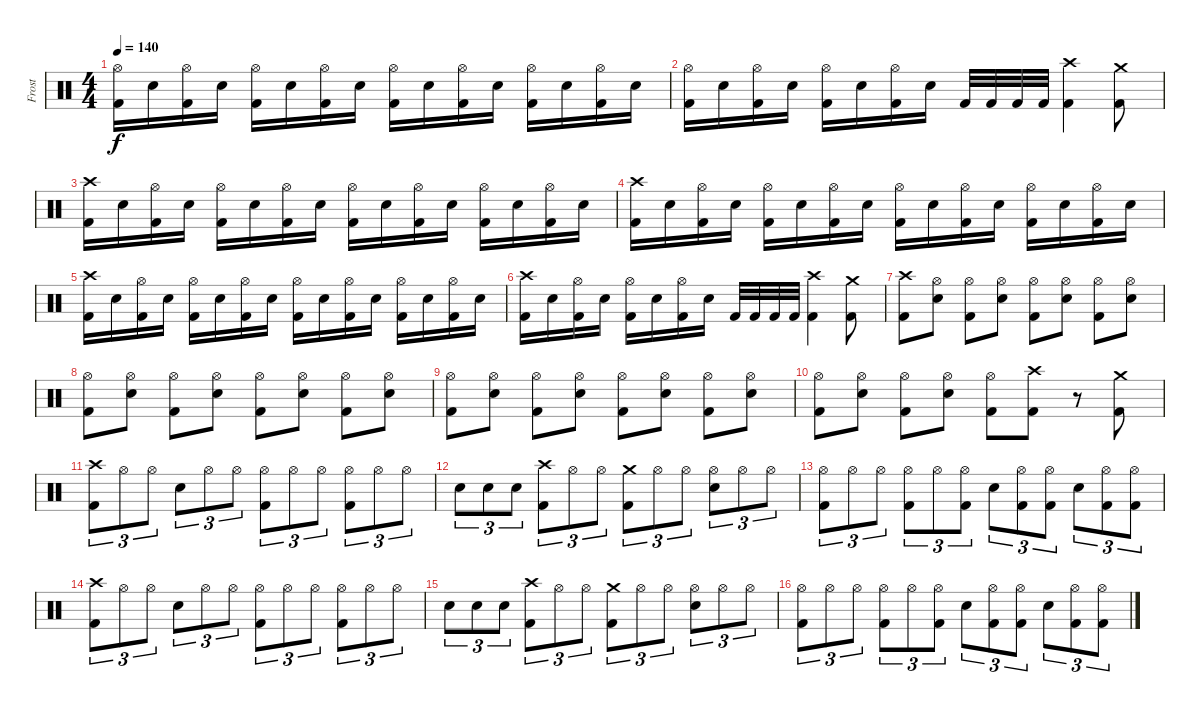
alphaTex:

\track ("Frost" "Frost") {instrument percussion}
\staff {score}
\articulation defaults
\ts (4 4)
\tempo 140
\clef neutral
\ks c
("Hi-Hat (open)" "Kick (hit) 2").16{dy f} "Snare (hit) 2".16 ("Hi-Hat (open)" "Kick (hit) 2").16 "Snare (hit) 2".16 ("Hi-Hat (open)" "Kick (hit) 2").16 "Snare (hit) 2".16 ("Hi-Hat (open)" "Kick (hit) 2").16 "Snare (hit) 2".16 ("Hi-Hat (open)" "Kick (hit) 2").16 "Snare (hit) 2".16 ("Hi-Hat (open)" "Kick (hit) 2").16 "Snare (hit) 2".16 ("Hi-Hat (open)" "Kick (hit) 2").16 "Snare (hit) 2".16 ("Hi-Hat (open)" "Kick (hit) 2").16 "Snare (hit) 2".16 |
("Hi-Hat (open)" "Kick (hit) 2").16 "Snare (hit) 2".16 ("Hi-Hat (open)" "Kick (hit) 2").16 "Snare (hit) 2".16 ("Hi-Hat (open)" "Kick (hit) 2").16 "Snare (hit) 2".16 ("Hi-Hat (open)" "Kick (hit) 2").16 "Snare (hit) 2".16 "Kick (hit) 2".32 "Kick (hit) 2".32 "Kick (hit) 2".32 "Kick (hit) 2".32 ("Crash high (hit)" "Kick (hit) 2").4 ("Crash medium (hit)" "Kick (hit) 2").8 |
("Crash high (hit)" "Kick (hit) 2").16 "Snare (hit) 2".16 ("Hi-Hat (open)" "Kick (hit) 2").16 "Snare (hit) 2".16 ("Hi-Hat (open)" "Kick (hit) 2").16 "Snare (hit) 2".16 ("Hi-Hat (open)" "Kick (hit) 2").16 "Snare (hit) 2".16 ("Hi-Hat (open)" "Kick (hit) 2").16 "Snare (hit) 2".16 ("Hi-Hat (open)" "Kick (hit) 2").16 "Snare (hit) 2".16 ("Hi-Hat (open)" "Kick (hit) 2").16 "Snare (hit) 2".16 ("Hi-Hat (open)" "Kick (hit) 2").16 "Snare (hit) 2".16 |
("Crash high (hit)" "Kick (hit) 2").16 "Snare (hit) 2".16 ("Hi-Hat (open)" "Kick (hit) 2").16 "Snare (hit) 2".16 ("Hi-Hat (open)" "Kick (hit) 2").16 "Snare (hit) 2".16 ("Hi-Hat (open)" "Kick (hit) 2").16 "Snare (hit) 2".16 ("Hi-Hat (open)" "Kick (hit) 2").16 "Snare (hit) 2".16 ("Hi-Hat (open)" "Kick (hit) 2").16 "Snare (hit) 2".16 ("Hi-Hat (open)" "Kick (hit) 2").16 "Snare (hit) 2".16 ("Hi-Hat (open)" "Kick (hit) 2").16 "Snare (hit) 2".16 |
("Crash high (hit)" "Kick (hit) 2").16 "Snare (hit) 2".16 ("Hi-Hat (open)" "Kick (hit) 2").16 "Snare (hit) 2".16 ("Hi-Hat (open)" "Kick (hit) 2").16 "Snare (hit) 2".16 ("Hi-Hat (open)" "Kick (hit) 2").16 "Snare (hit) 2".16 ("Hi-Hat (open)" "Kick (hit) 2").16 "Snare (hit) 2".16 ("Hi-Hat (open)" "Kick (hit) 2").16 "Snare (hit) 2".16 ("Hi-Hat (open)" "Kick (hit) 2").16 "Snare (hit) 2".16 ("Hi-Hat (open)" "Kick (hit) 2").16 "Snare (hit) 2".16 |
("Crash high (hit)" "Kick (hit) 2").16 "Snare (hit) 2".16 ("Hi-Hat (open)" "Kick (hit) 2").16 "Snare (hit) 2".16 ("Hi-Hat (open)" "Kick (hit) 2").16 "Snare (hit) 2".16 ("Hi-Hat (open)" "Kick (hit) 2").16 "Snare (hit) 2".16 "Kick (hit) 2".32 "Kick (hit) 2".32 "Kick (hit) 2".32 "Kick (hit) 2".32 ("Crash high (hit)" "Kick (hit) 2").4 ("Crash medium (hit)" "Kick (hit) 2").8 |
("Crash high (hit)" "Kick (hit) 2").8 ("Hi-Hat (open)" "Snare (hit) 2").8 ("Hi-Hat (open)" "Kick (hit) 2").8 ("Hi-Hat (open)" "Snare (hit) 2").8 ("Hi-Hat (open)" "Kick (hit) 2").8 ("Hi-Hat (open)" "Snare (hit) 2").8 ("Hi-Hat (open)" "Kick (hit) 2").8 ("Hi-Hat (open)" "Snare (hit) 2").8 |
("Hi-Hat (open)" "Kick (hit) 2").8 ("Hi-Hat (open)" "Snare (hit) 2").8 ("Hi-Hat (open)" "Kick (hit) 2").8 ("Hi-Hat (open)" "Snare (hit) 2").8 ("Hi-Hat (open)" "Kick (hit) 2").8 ("Hi-Hat (open)" "Snare (hit) 2").8 ("Hi-Hat (open)" "Kick (hit) 2").8 ("Hi-Hat (open)" "Snare (hit) 2").8 |
("Hi-Hat (open)" "Kick (hit) 2").8 ("Hi-Hat (open)" "Snare (hit) 2").8 ("Hi-Hat (open)" "Kick (hit) 2").8 ("Hi-Hat (open)" "Snare (hit) 2").8 ("Hi-Hat (open)" "Kick (hit) 2").8 ("Hi-Hat (open)" "Snare (hit) 2").8 ("Hi-Hat (open)" "Kick (hit) 2").8 ("Hi-Hat (open)" "Snare (hit) 2").8 |
("Hi-Hat (open)" "Kick (hit) 2").8 ("Hi-Hat (open)" "Snare (hit) 2").8 ("Hi-Hat (open)" "Kick (hit) 2").8 ("Hi-Hat (open)" "Snare (hit) 2").8 ("Hi-Hat (open)" "Kick (hit) 2").8 ("Crash high (hit)" "Kick (hit) 2").8 r.8 ("Crash medium (hit)" "Kick (hit) 2").8 |
("Crash high (hit)" "Kick (hit) 2").8{tu (3 2)} "Hi-Hat (open)".8{tu (3 2)} "Hi-Hat (open)".8{tu (3 2)} "Snare (hit) 2".8{tu (3 2)} "Hi-Hat (open)".8{tu (3 2)} "Hi-Hat (open)".8{tu (3 2)} ("Hi-Hat (open)" "Kick (hit) 2").8{tu (3 2)} "Hi-Hat (open)".8{tu (3 2)} "Hi-Hat (open)".8{tu (3 2)} ("Hi-Hat (open)" "Kick (hit) 2").8{tu (3 2)} "Hi-Hat (open)".8{tu (3 2)} "Hi-Hat (open)".8{tu (3 2)} |
"Snare (hit) 2".8{tu (3 2)} "Snare (hit) 2".8{tu (3 2)} "Snare (hit) 2".8{tu (3 2)} ("Crash high (hit)" "Kick (hit) 2").8{tu (3 2)} "Hi-Hat (open)".8{tu (3 2)} "Hi-Hat (open)".8{tu (3 2)} ("Crash medium (hit)" "Kick (hit) 2").8{tu (3 2)} "Hi-Hat (open)".8{tu (3 2)} "Hi-Hat (open)".8{tu (3 2)} ("Hi-Hat (open)" "Snare (hit) 2").8{tu (3 2)} "Hi-Hat (open)".8{tu (3 2)} "Hi-Hat (open)".8{tu (3 2)} |
("Hi-Hat (open)" "Kick (hit) 2").8{tu (3 2)} "Hi-Hat (open)".8{tu (3 2)} "Hi-Hat (open)".8{tu (3 2)} ("Hi-Hat (open)" "Kick (hit) 2").8{tu (3 2)} "Hi-Hat (open)".8{tu (3 2)} ("Hi-Hat (open)" "Kick (hit) 2").8{tu (3 2)} "Snare (hit) 2".8{tu (3 2)} ("Hi-Hat (open)" "Kick (hit) 2").8{tu (3 2)} ("Hi-Hat (open)" "Kick (hit) 2").8{tu (3 2)} "Snare (hit) 2".8{tu (3 2)} ("Hi-Hat (open)" "Kick (hit) 2").8{tu (3 2)} ("Hi-Hat (open)" "Kick (hit) 2").8{tu (3 2)} |
("Crash high (hit)" "Kick (hit) 2").8{tu (3 2)} "Hi-Hat (open)".8{tu (3 2)} "Hi-Hat (open)".8{tu (3 2)} "Snare (hit) 2".8{tu (3 2)} "Hi-Hat (open)".8{tu (3 2)} "Hi-Hat (open)".8{tu (3 2)} ("Hi-Hat (open)" "Kick (hit) 2").8{tu (3 2)} "Hi-Hat (open)".8{tu (3 2)} "Hi-Hat (open)".8{tu (3 2)} ("Hi-Hat (open)" "Kick (hit) 2").8{tu (3 2)} "Hi-Hat (open)".8{tu (3 2)} "Hi-Hat (open)".8{tu (3 2)} |
"Snare (hit) 2".8{tu (3 2)} "Snare (hit) 2".8{tu (3 2)} "Snare (hit) 2".8{tu (3 2)} ("Crash high (hit)" "Kick (hit) 2").8{tu (3 2)} "Hi-Hat (open)".8{tu (3 2)} "Hi-Hat (open)".8{tu (3 2)} ("Crash medium (hit)" "Kick (hit) 2").8{tu (3 2)} "Hi-Hat (open)".8{tu (3 2)} "Hi-Hat (open)".8{tu (3 2)} ("Hi-Hat (open)" "Snare (hit) 2").8{tu (3 2)} "Hi-Hat (open)".8{tu (3 2)} "Hi-Hat (open)".8{tu (3 2)} |
("Hi-Hat (open)" "Kick (hit) 2").8{tu (3 2)} "Hi-Hat (open)".8{tu (3 2)} "Hi-Hat (open)".8{tu (3 2)} ("Hi-Hat (open)" "Kick (hit) 2").8{tu (3 2)} "Hi-Hat (open)".8{tu (3 2)} ("Hi-Hat (open)" "Kick (hit) 2").8{tu (3 2)} "Snare (hit) 2".8{tu (3 2)} ("Hi-Hat (open)" "Kick (hit) 2").8{tu (3 2)} ("Hi-Hat (open)" "Kick (hit) 2").8{tu (3 2)} "Snare (hit) 2".8{tu (3 2)} ("Hi-Hat (open)" "Kick (hit) 2").8{tu (3 2)} ("Hi-Hat (open)" "Kick (hit) 2").8{tu (3 2)}
